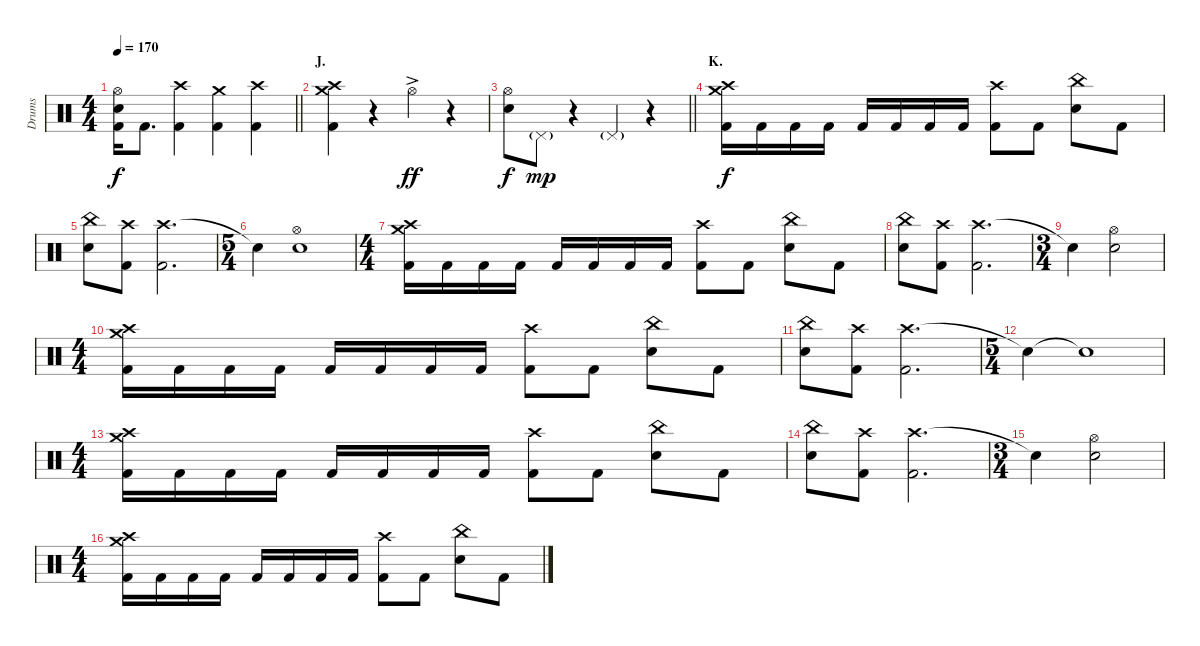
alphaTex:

\track ("Drums" "Drums") {instrument percussion}
\staff {score}
\articulation defaults
\ts (4 4)
\tempo 170
\clef neutral
\barLineRight lightlight
\ks c
("Hi-Hat (open)" "Electric Snare (hit)" "Kick (hit) 2").16{dy f} "Kick (hit) 2".8{d} ("Crash high (hit)" "Kick (hit) 2").4 ("Crash medium (hit)" "Kick (hit) 2").4 ("Crash high (hit)" "Kick (hit) 2").4 |
\section ("" "J.")
("Crash medium (hit)" "Crash high (hit)" "Kick (hit) 2").4 r.4 "Hi-Hat (open)"{ac}.4{dy ff} r.4 |
\barLineRight lightlight
("Hi-Hat (open)" "Electric Snare (hit)").8{dy f} "Pedal Hi-Hat (hit)"{g}.8{dy mp} r.4 "Pedal Hi-Hat (hit)"{g}.4 r.4 |
\section ("" "K.")
("Crash medium (hit)" "Crash high (hit)" "Kick (hit) 2").16{dy f} "Kick (hit) 2".16 "Kick (hit) 2".16 "Kick (hit) 2".16 "Kick (hit) 2".16 "Kick (hit) 2".16 "Kick (hit) 2".16 "Kick (hit) 2".16 ("Crash high (hit)" "Kick (hit) 2").8 "Kick (hit) 2".8 ("China (hit)" "Electric Snare (hit)").8 "Kick (hit) 2".8 |
("China (hit)" "Electric Snare (hit)").8 ("Crash high (hit)" "Kick (hit) 2").8 ("Crash high (hit)" "Kick (hit) 2").2{d} |
\ts (5 4)
"Snare (hit)"{t}.4 ("Hi-Hat (open)" "Electric Snare (hit)").1 |
\ts (4 4)
("Crash medium (hit)" "Crash high (hit)" "Kick (hit) 2").16 "Kick (hit) 2".16 "Kick (hit) 2".16 "Kick (hit) 2".16 "Kick (hit) 2".16 "Kick (hit) 2".16 "Kick (hit) 2".16 "Kick (hit) 2".16 ("Crash high (hit)" "Kick (hit) 2").8 "Kick (hit) 2".8 ("China (hit)" "Electric Snare (hit)").8 "Kick (hit) 2".8 |
("China (hit)" "Electric Snare (hit)").8 ("Crash high (hit)" "Kick (hit) 2").8 ("Crash high (hit)" "Kick (hit) 2").2{d} |
\ts (3 4)
"Snare (hit)"{t}.4 ("Hi-Hat (open)" "Electric Snare (hit)").2 |
\ts (4 4)
("Crash medium (hit)" "Crash high (hit)" "Kick (hit) 2").16 "Kick (hit) 2".16 "Kick (hit) 2".16 "Kick (hit) 2".16 "Kick (hit) 2".16 "Kick (hit) 2".16 "Kick (hit) 2".16 "Kick (hit) 2".16 ("Crash high (hit)" "Kick (hit) 2").8 "Kick (hit) 2".8 ("China (hit)" "Electric Snare (hit)").8 "Kick (hit) 2".8 |
("China (hit)" "Electric Snare (hit)").8 ("Crash high (hit)" "Kick (hit) 2").8 ("Crash high (hit)" "Kick (hit) 2").2{d} |
\ts (5 4)
"Snare (hit)"{t}.4 "Snare (hit)"{t}.1 |
\ts (4 4)
("Crash medium (hit)" "Crash high (hit)" "Kick (hit) 2").16 "Kick (hit) 2".16 "Kick (hit) 2".16 "Kick (hit) 2".16 "Kick (hit) 2".16 "Kick (hit) 2".16 "Kick (hit) 2".16 "Kick (hit) 2".16 ("Crash high (hit)" "Kick (hit) 2").8 "Kick (hit) 2".8 ("China (hit)" "Electric Snare (hit)").8 "Kick (hit) 2".8 |
("China (hit)" "Electric Snare (hit)").8 ("Crash high (hit)" "Kick (hit) 2").8 ("Crash high (hit)" "Kick (hit) 2").2{d} |
\ts (3 4)
"Snare (hit)"{t}.4 ("Hi-Hat (open)" "Electric Snare (hit)").2 |
\ts (4 4)
("Crash medium (hit)" "Crash high (hit)" "Kick (hit) 2").16 "Kick (hit) 2".16 "Kick (hit) 2".16 "Kick (hit) 2".16 "Kick (hit) 2".16 "Kick (hit) 2".16 "Kick (hit) 2".16 "Kick (hit) 2".16 ("Crash high (hit)" "Kick (hit) 2").8 "Kick (hit) 2".8 ("China (hit)" "Electric Snare (hit)").8 "Kick (hit) 2".8
